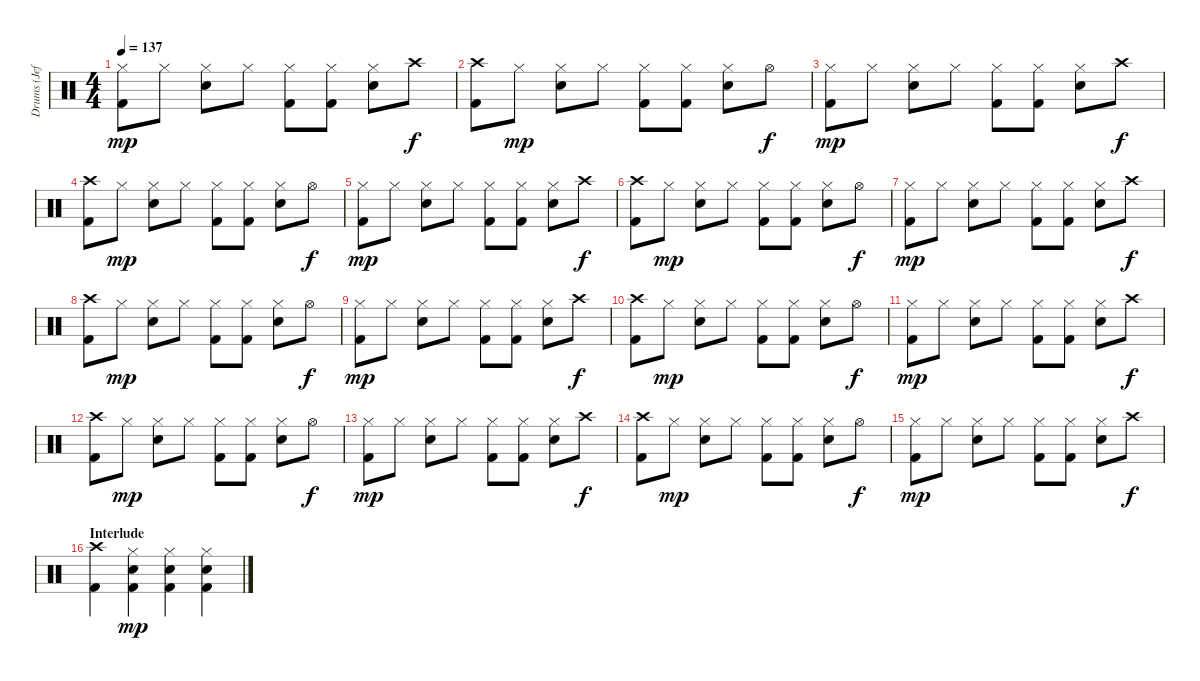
\track ("Drums (Jeff)" "Drums (Jef") {instrument percussion}
\staff {score}
\articulation defaults
\ts (4 4)
\tempo 137
\clef neutral
\ks c
("Hi-Hat (closed)" "Kick (hit) 2").8{dy mp} "Hi-Hat (closed)".8 ("Hi-Hat (closed)" "Electric Snare (hit)").8 "Hi-Hat (closed)".8 ("Hi-Hat (closed)" "Kick (hit) 2").8 ("Hi-Hat (closed)" "Kick (hit) 2").8 ("Hi-Hat (closed)" "Electric Snare (hit)").8 "Crash high (hit)".8{dy f} |
("Crash high (hit)" "Kick (hit) 2").8 "Hi-Hat (closed)".8{dy mp} ("Hi-Hat (closed)" "Electric Snare (hit)").8 "Hi-Hat (closed)".8 ("Hi-Hat (closed)" "Kick (hit) 2").8 ("Hi-Hat (closed)" "Kick (hit) 2").8 ("Hi-Hat (closed)" "Electric Snare (hit)").8 "Hi-Hat (open)".8{dy f} |
("Hi-Hat (closed)" "Kick (hit) 2").8{dy mp} "Hi-Hat (closed)".8 ("Hi-Hat (closed)" "Electric Snare (hit)").8 "Hi-Hat (closed)".8 ("Hi-Hat (closed)" "Kick (hit) 2").8 ("Hi-Hat (closed)" "Kick (hit) 2").8 ("Hi-Hat (closed)" "Electric Snare (hit)").8 "Crash high (hit)".8{dy f} |
("Crash high (hit)" "Kick (hit) 2").8 "Hi-Hat (closed)".8{dy mp} ("Hi-Hat (closed)" "Electric Snare (hit)").8 "Hi-Hat (closed)".8 ("Hi-Hat (closed)" "Kick (hit) 2").8 ("Hi-Hat (closed)" "Kick (hit) 2").8 ("Hi-Hat (closed)" "Electric Snare (hit)").8 "Hi-Hat (open)".8{dy f} |
("Hi-Hat (closed)" "Kick (hit) 2").8{dy mp} "Hi-Hat (closed)".8 ("Hi-Hat (closed)" "Electric Snare (hit)").8 "Hi-Hat (closed)".8 ("Hi-Hat (closed)" "Kick (hit) 2").8 ("Hi-Hat (closed)" "Kick (hit) 2").8 ("Hi-Hat (closed)" "Electric Snare (hit)").8 "Crash high (hit)".8{dy f} |
("Crash high (hit)" "Kick (hit) 2").8 "Hi-Hat (closed)".8{dy mp} ("Hi-Hat (closed)" "Electric Snare (hit)").8 "Hi-Hat (closed)".8 ("Hi-Hat (closed)" "Kick (hit) 2").8 ("Hi-Hat (closed)" "Kick (hit) 2").8 ("Hi-Hat (closed)" "Electric Snare (hit)").8 "Hi-Hat (open)".8{dy f} |
("Hi-Hat (closed)" "Kick (hit) 2").8{dy mp} "Hi-Hat (closed)".8 ("Hi-Hat (closed)" "Electric Snare (hit)").8 "Hi-Hat (closed)".8 ("Hi-Hat (closed)" "Kick (hit) 2").8 ("Hi-Hat (closed)" "Kick (hit) 2").8 ("Hi-Hat (closed)" "Electric Snare (hit)").8 "Crash high (hit)".8{dy f} |
("Crash high (hit)" "Kick (hit) 2").8 "Hi-Hat (closed)".8{dy mp} ("Hi-Hat (closed)" "Electric Snare (hit)").8 "Hi-Hat (closed)".8 ("Hi-Hat (closed)" "Kick (hit) 2").8 ("Hi-Hat (closed)" "Kick (hit) 2").8 ("Hi-Hat (closed)" "Electric Snare (hit)").8 "Hi-Hat (open)".8{dy f} |
("Hi-Hat (closed)" "Kick (hit) 2").8{dy mp} "Hi-Hat (closed)".8 ("Hi-Hat (closed)" "Electric Snare (hit)").8 "Hi-Hat (closed)".8 ("Hi-Hat (closed)" "Kick (hit) 2").8 ("Hi-Hat (closed)" "Kick (hit) 2").8 ("Hi-Hat (closed)" "Electric Snare (hit)").8 "Crash high (hit)".8{dy f} |
("Crash high (hit)" "Kick (hit) 2").8 "Hi-Hat (closed)".8{dy mp} ("Hi-Hat (closed)" "Electric Snare (hit)").8 "Hi-Hat (closed)".8 ("Hi-Hat (closed)" "Kick (hit) 2").8 ("Hi-Hat (closed)" "Kick (hit) 2").8 ("Hi-Hat (closed)" "Electric Snare (hit)").8 "Hi-Hat (open)".8{dy f} |
("Hi-Hat (closed)" "Kick (hit) 2").8{dy mp} "Hi-Hat (closed)".8 ("Hi-Hat (closed)" "Electric Snare (hit)").8 "Hi-Hat (closed)".8 ("Hi-Hat (closed)" "Kick (hit) 2").8 ("Hi-Hat (closed)" "Kick (hit) 2").8 ("Hi-Hat (closed)" "Electric Snare (hit)").8 "Crash high (hit)".8{dy f} |
("Crash high (hit)" "Kick (hit) 2").8 "Hi-Hat (closed)".8{dy mp} ("Hi-Hat (closed)" "Electric Snare (hit)").8 "Hi-Hat (closed)".8 ("Hi-Hat (closed)" "Kick (hit) 2").8 ("Hi-Hat (closed)" "Kick (hit) 2").8 ("Hi-Hat (closed)" "Electric Snare (hit)").8 "Hi-Hat (open)".8{dy f} |
("Hi-Hat (closed)" "Kick (hit) 2").8{dy mp} "Hi-Hat (closed)".8 ("Hi-Hat (closed)" "Electric Snare (hit)").8 "Hi-Hat (closed)".8 ("Hi-Hat (closed)" "Kick (hit) 2").8 ("Hi-Hat (closed)" "Kick (hit) 2").8 ("Hi-Hat (closed)" "Electric Snare (hit)").8 "Crash high (hit)".8{dy f} |
("Crash high (hit)" "Kick (hit) 2").8 "Hi-Hat (closed)".8{dy mp} ("Hi-Hat (closed)" "Electric Snare (hit)").8 "Hi-Hat (closed)".8 ("Hi-Hat (closed)" "Kick (hit) 2").8 ("Hi-Hat (closed)" "Kick (hit) 2").8 ("Hi-Hat (closed)" "Electric Snare (hit)").8 "Hi-Hat (open)".8{dy f} |
("Hi-Hat (closed)" "Kick (hit) 2").8{dy mp} "Hi-Hat (closed)".8 ("Hi-Hat (closed)" "Electric Snare (hit)").8 "Hi-Hat (closed)".8 ("Hi-Hat (closed)" "Kick (hit) 2").8 ("Hi-Hat (closed)" "Kick (hit) 2").8 ("Hi-Hat (closed)" "Electric Snare (hit)").8 "Crash high (hit)".8{dy f} |
\section ("" "Interlude")
("Crash high (hit)" "Kick (hit) 2").4 ("Hi-Hat (closed)" "Electric Snare (hit)" "Kick (hit) 2").4{dy mp} ("Hi-Hat (closed)" "Electric Snare (hit)" "Kick (hit) 2").4 ("Hi-Hat (closed)" "Electric Snare (hit)" "Kick (hit) 2").4
